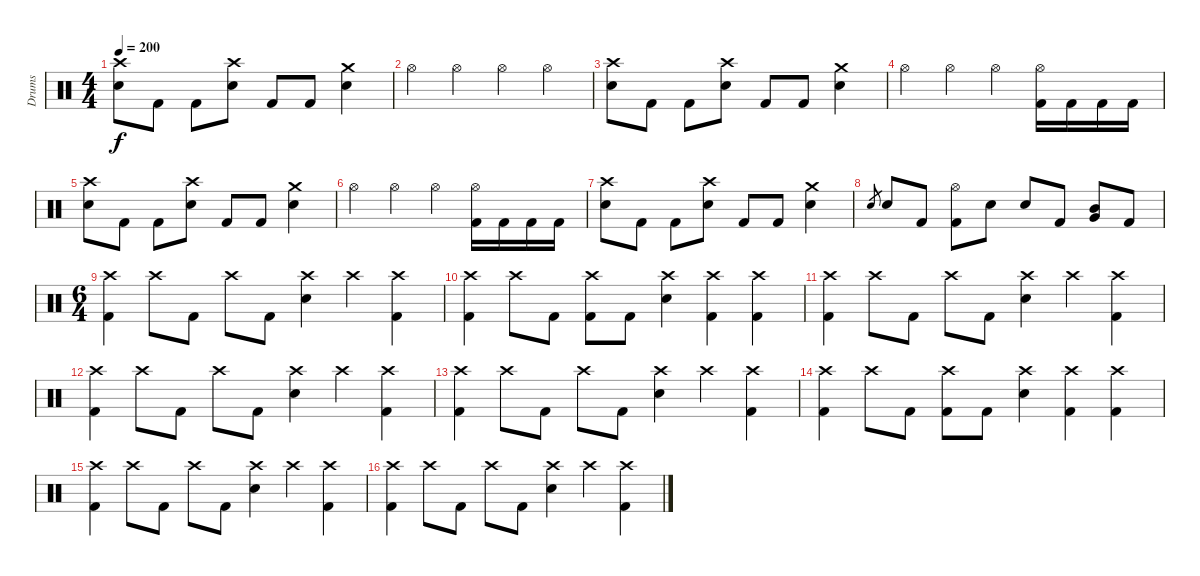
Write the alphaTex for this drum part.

\track ("Drums" "Drums") {instrument percussion}
\staff {score}
\articulation defaults
\ts (4 4)
\tempo 200
\clef neutral
\ks c
("Crash high (hit)" "Electric Snare (hit)").8{dy f} "Kick (hit) 2".8 "Kick (hit) 2".8 ("Crash high (hit)" "Electric Snare (hit)").8 "Kick (hit) 2".8 "Kick (hit) 2".8 ("Crash medium (hit)" "Electric Snare (hit)").4 |
"Hi-Hat (open)".4 "Hi-Hat (open)".4 "Hi-Hat (open)".4 "Hi-Hat (open)".4 |
("Crash high (hit)" "Electric Snare (hit)").8 "Kick (hit) 2".8 "Kick (hit) 2".8 ("Crash high (hit)" "Electric Snare (hit)").8 "Kick (hit) 2".8 "Kick (hit) 2".8 ("Crash medium (hit)" "Electric Snare (hit)").4 |
"Hi-Hat (open)".4 "Hi-Hat (open)".4 "Hi-Hat (open)".4 ("Hi-Hat (open)" "Kick (hit) 2").16 "Kick (hit) 2".16 "Kick (hit) 2".16 "Kick (hit) 2".16 |
("Crash high (hit)" "Electric Snare (hit)").8 "Kick (hit) 2".8 "Kick (hit) 2".8 ("Crash high (hit)" "Electric Snare (hit)").8 "Kick (hit) 2".8 "Kick (hit) 2".8 ("Crash medium (hit)" "Electric Snare (hit)").4 |
"Hi-Hat (open)".4 "Hi-Hat (open)".4 "Hi-Hat (open)".4 ("Kick (hit) 2" "Hi-Hat (open)").16 "Kick (hit) 2".16 "Kick (hit) 2".16 "Kick (hit) 2".16 |
("Crash high (hit)" "Electric Snare (hit)").8 "Kick (hit) 2".8 "Kick (hit) 2".8 ("Crash high (hit)" "Electric Snare (hit)").8 "Kick (hit) 2".8 "Kick (hit) 2".8 ("Crash medium (hit)" "Electric Snare (hit)").4 |
"Electric Snare (hit)".8{gr} "Electric Snare (hit)".8 "Kick (hit) 2".8 ("Hi-Hat (open)" "Kick (hit) 2").8 "Electric Snare (hit)".8 "Electric Snare (hit)".8 "Kick (hit) 2".8 ("Very Low Tom (hit)" "Mid Tom (hit)").8 "Kick (hit) 2".8 |
\ts (6 4)
("Crash high (hit)" "Kick (hit) 2").4 "Crash high (hit)".8 "Kick (hit) 2".8 "Crash high (hit)".8 "Kick (hit) 2".8 ("Crash high (hit)" "Electric Snare (hit)").4 "Crash high (hit)".4 ("Kick (hit) 2" "Crash high (hit)").4 |
("Crash high (hit)" "Kick (hit) 2").4 "Crash high (hit)".8 "Kick (hit) 2".8 ("Crash high (hit)" "Kick (hit) 2").8 "Kick (hit) 2".8 ("Electric Snare (hit)" "Crash high (hit)").4 ("Kick (hit) 2" "Crash high (hit)").4 ("Kick (hit) 2" "Crash high (hit)").4 |
("Crash high (hit)" "Kick (hit) 2").4 "Crash high (hit)".8 "Kick (hit) 2".8 "Crash high (hit)".8 "Kick (hit) 2".8 ("Crash high (hit)" "Electric Snare (hit)").4 "Crash high (hit)".4 ("Kick (hit) 2" "Crash high (hit)").4 |
("Crash high (hit)" "Kick (hit) 2").4 "Crash high (hit)".8 "Kick (hit) 2".8 "Crash high (hit)".8 "Kick (hit) 2".8 ("Crash high (hit)" "Electric Snare (hit)").4 "Crash high (hit)".4 ("Kick (hit) 2" "Crash high (hit)").4 |
("Crash high (hit)" "Kick (hit) 2").4 "Crash high (hit)".8 "Kick (hit) 2".8 "Crash high (hit)".8 "Kick (hit) 2".8 ("Crash high (hit)" "Electric Snare (hit)").4 "Crash high (hit)".4 ("Kick (hit) 2" "Crash high (hit)").4 |
("Crash high (hit)" "Kick (hit) 2").4 "Crash high (hit)".8 "Kick (hit) 2".8 ("Crash high (hit)" "Kick (hit) 2").8 "Kick (hit) 2".8 ("Electric Snare (hit)" "Crash high (hit)").4 ("Kick (hit) 2" "Crash high (hit)").4 ("Kick (hit) 2" "Crash high (hit)").4 |
("Crash high (hit)" "Kick (hit) 2").4 "Crash high (hit)".8 "Kick (hit) 2".8 "Crash high (hit)".8 "Kick (hit) 2".8 ("Crash high (hit)" "Electric Snare (hit)").4 "Crash high (hit)".4 ("Kick (hit) 2" "Crash high (hit)").4 |
("Crash high (hit)" "Kick (hit) 2").4 "Crash high (hit)".8 "Kick (hit) 2".8 "Crash high (hit)".8 "Kick (hit) 2".8 ("Crash high (hit)" "Electric Snare (hit)").4 "Crash high (hit)".4 ("Kick (hit) 2" "Crash high (hit)").4
